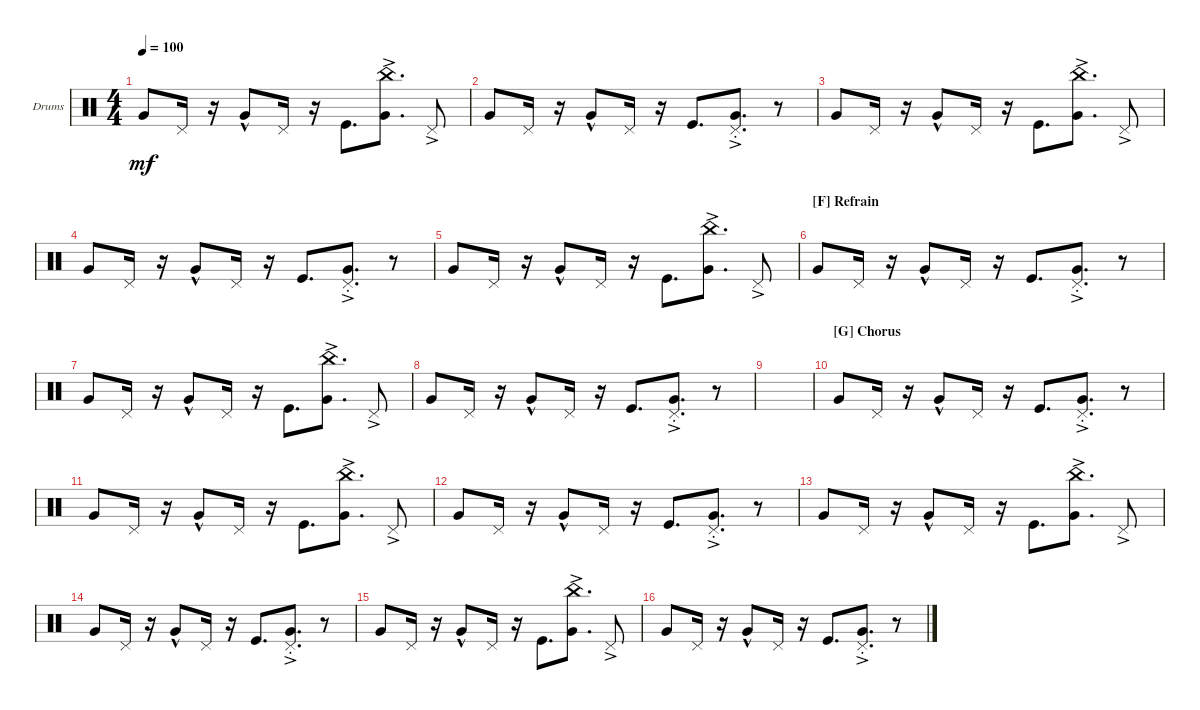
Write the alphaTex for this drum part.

\defaultSystemsLayout 4
\bracketExtendMode groupsimilarinstruments
\firstSystemTrackNameOrientation horizontal
\otherSystemsTrackNameOrientation horizontal
\track ("Drumkit" "Drums") {instrument percussion}
\staff {score}
\articulation defaults
\ts (4 4)
\tempo 100
\clef neutral
\ks c "Very Low Tom (hit)".8{dy mf} "Pedal Hi-Hat (hit)".16
r.16 "Very Low Tom (hit)"{hac}.8 "Pedal Hi-Hat (hit)".16 r.16 "Kick (hit)".8{d} ("China (hit)"{ac} "Very Low Tom (hit)"{ac}).8{d} "Pedal Hi-Hat (hit)"{ac}.8 |
"Very Low Tom (hit)".8 "Pedal Hi-Hat (hit)".16 r.16 "Very Low Tom (hit)"{hac}.8 "Pedal Hi-Hat (hit)".16 r.16 "Kick (hit)".8{d} ("Very Low Tom (hit)"{ac st} "Pedal Hi-Hat (hit)"{ac st}).8{d} r.8 |
"Very Low Tom (hit)".8 "Pedal Hi-Hat (hit)".16 r.16 "Very Low Tom (hit)"{hac}.8 "Pedal Hi-Hat (hit)".16 r.16 "Kick (hit)".8{d} ("China (hit)"{ac} "Very Low Tom (hit)"{ac}).8{d} "Pedal Hi-Hat (hit)"{ac}.8 |
"Very Low Tom (hit)".8 "Pedal Hi-Hat (hit)".16 r.16 "Very Low Tom (hit)"{hac}.8 "Pedal Hi-Hat (hit)".16 r.16 "Kick (hit)".8{d} ("Very Low Tom (hit)"{ac st} "Pedal Hi-Hat (hit)"{ac st}).8{d} r.8 |
"Very Low Tom (hit)".8 "Pedal Hi-Hat (hit)".16 r.16 "Very Low Tom (hit)"{hac}.8 "Pedal Hi-Hat (hit)".16 r.16 "Kick (hit)".8{d} ("China (hit)"{ac} "Very Low Tom (hit)"{ac}).8{d} "Pedal Hi-Hat (hit)"{ac}.8 |
\section ("F" "Refrain")
"Very Low Tom (hit)".8 "Pedal Hi-Hat (hit)".16 r.16 "Very Low Tom (hit)"{hac}.8 "Pedal Hi-Hat (hit)".16 r.16 "Kick (hit)".8{d} ("Very Low Tom (hit)"{ac st} "Pedal Hi-Hat (hit)"{ac st}).8{d} r.8 |
"Very Low Tom (hit)".8 "Pedal Hi-Hat (hit)".16 r.16 "Very Low Tom (hit)"{hac}.8 "Pedal Hi-Hat (hit)".16 r.16 "Kick (hit)".8{d} ("China (hit)"{ac} "Very Low Tom (hit)"{ac}).8{d} "Pedal Hi-Hat (hit)"{ac}.8 |
"Very Low Tom (hit)".8 "Pedal Hi-Hat (hit)".16 r.16 "Very Low Tom (hit)"{hac}.8 "Pedal Hi-Hat (hit)".16 r.16 "Kick (hit)".8{d} ("Very Low Tom (hit)"{ac st} "Pedal Hi-Hat (hit)"{ac st}).8{d} r.8 |
|
\section ("G" "Chorus")
"Very Low Tom (hit)".8 "Pedal Hi-Hat (hit)".16 r.16 "Very Low Tom (hit)"{hac}.8 "Pedal Hi-Hat (hit)".16 r.16 "Kick (hit)".8{d} ("Very Low Tom (hit)"{ac st} "Pedal Hi-Hat (hit)"{ac st}).8{d} r.8 |
"Very Low Tom (hit)".8 "Pedal Hi-Hat (hit)".16 r.16 "Very Low Tom (hit)"{hac}.8 "Pedal Hi-Hat (hit)".16 r.16 "Kick (hit)".8{d} ("China (hit)"{ac} "Very Low Tom (hit)"{ac}).8{d} "Pedal Hi-Hat (hit)"{ac}.8 |
"Very Low Tom (hit)".8 "Pedal Hi-Hat (hit)".16 r.16 "Very Low Tom (hit)"{hac}.8 "Pedal Hi-Hat (hit)".16 r.16 "Kick (hit)".8{d} ("Very Low Tom (hit)"{ac st} "Pedal Hi-Hat (hit)"{ac st}).8{d} r.8 |
"Very Low Tom (hit)".8 "Pedal Hi-Hat (hit)".16 r.16 "Very Low Tom (hit)"{hac}.8 "Pedal Hi-Hat (hit)".16 r.16 "Kick (hit)".8{d} ("China (hit)"{ac} "Very Low Tom (hit)"{ac}).8{d} "Pedal Hi-Hat (hit)"{ac}.8 |
"Very Low Tom (hit)".8 "Pedal Hi-Hat (hit)".16 r.16 "Very Low Tom (hit)"{hac}.8 "Pedal Hi-Hat (hit)".16 r.16 "Kick (hit)".8{d} ("Very Low Tom (hit)"{ac st} "Pedal Hi-Hat (hit)"{ac st}).8{d} r.8 |
"Very Low Tom (hit)".8 "Pedal Hi-Hat (hit)".16 r.16 "Very Low Tom (hit)"{hac}.8 "Pedal Hi-Hat (hit)".16 r.16 "Kick (hit)".8{d} ("China (hit)"{ac} "Very Low Tom (hit)"{ac}).8{d} "Pedal Hi-Hat (hit)"{ac}.8 |
"Very Low Tom (hit)".8 "Pedal Hi-Hat (hit)".16 r.16 "Very Low Tom (hit)"{hac}.8 "Pedal Hi-Hat (hit)".16 r.16 "Kick (hit)".8{d} ("Very Low Tom (hit)"{ac st} "Pedal Hi-Hat (hit)"{ac st}).8{d} r.8
